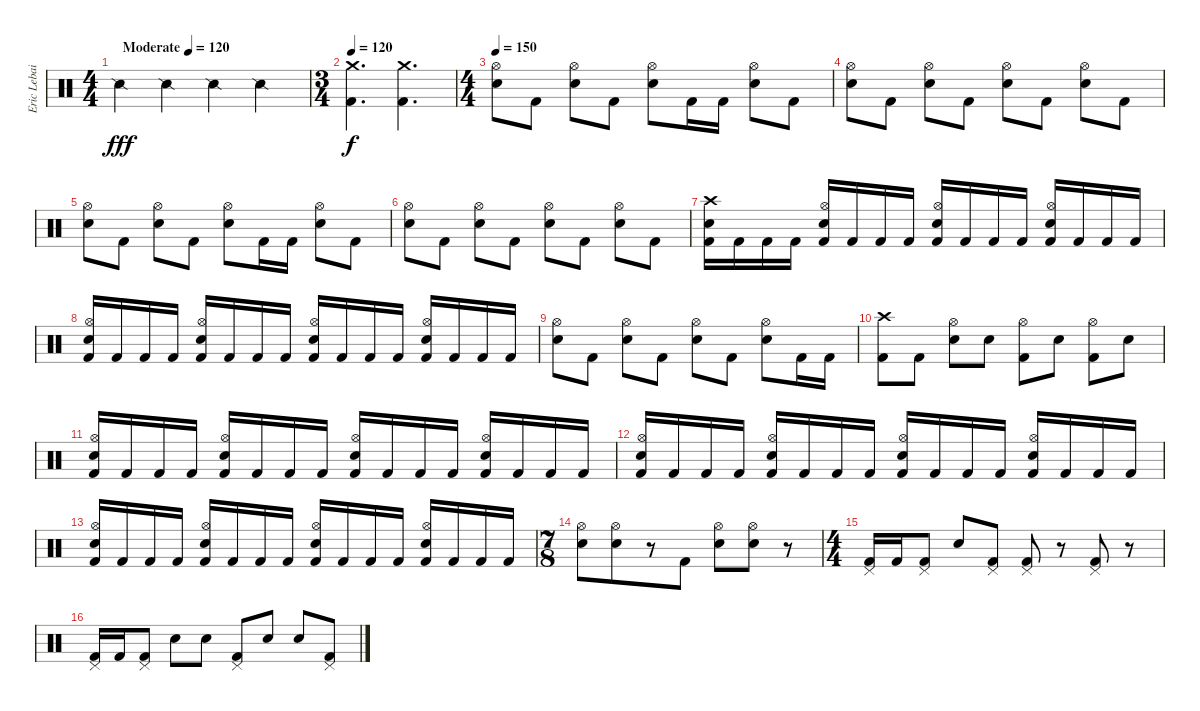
\track ("Eric Lebailly - Drums" "Eric Lebai") {instrument percussion}
\staff {score}
\articulation defaults
\ts (4 4)
\tempo (120 "Moderate")
\tempo 150
\tempo (120 "Moderate")
\clef neutral
\ks c "Snare (side stick) 2".4{dy fff} "Snare (side stick) 2".4 "Snare (side stick) 2".4 "Snare (side stick) 2".4
|
\ts (3 4)
\tempo 120
("Crash medium (hit)" "Kick (hit) 2").4{d dy f} ("Crash medium (hit)" "Kick (hit) 2").4{d} |
\ts (4 4)
\tempo 150
("Hi-Hat (open)" "Electric Snare (hit)").8 "Kick (hit) 2".8 ("Hi-Hat (open)" "Electric Snare (hit)").8 "Kick (hit) 2".8 ("Hi-Hat (open)" "Electric Snare (hit)").8 "Kick (hit) 2".16 "Kick (hit) 2".16 ("Hi-Hat (open)" "Electric Snare (hit)").8 "Kick (hit) 2".8 |
("Hi-Hat (open)" "Electric Snare (hit)").8 "Kick (hit) 2".8 ("Hi-Hat (open)" "Electric Snare (hit)").8 "Kick (hit) 2".8 ("Hi-Hat (open)" "Electric Snare (hit)").8 "Kick (hit) 2".8 ("Hi-Hat (open)" "Electric Snare (hit)").8 "Kick (hit) 2".8 |
("Hi-Hat (open)" "Electric Snare (hit)").8 "Kick (hit) 2".8 ("Hi-Hat (open)" "Electric Snare (hit)").8 "Kick (hit) 2".8 ("Hi-Hat (open)" "Electric Snare (hit)").8 "Kick (hit) 2".16 "Kick (hit) 2".16 ("Hi-Hat (open)" "Electric Snare (hit)").8 "Kick (hit) 2".8 |
("Hi-Hat (open)" "Electric Snare (hit)").8 "Kick (hit) 2".8 ("Hi-Hat (open)" "Electric Snare (hit)").8 "Kick (hit) 2".8 ("Hi-Hat (open)" "Electric Snare (hit)").8 "Kick (hit) 2".8 ("Hi-Hat (open)" "Electric Snare (hit)").8 "Kick (hit) 2".8 |
("Crash high (hit)" "Electric Snare (hit)" "Kick (hit) 2").16 "Kick (hit) 2".16 "Kick (hit) 2".16 "Kick (hit) 2".16 ("Hi-Hat (open)" "Electric Snare (hit)" "Kick (hit) 2").16 "Kick (hit) 2".16 "Kick (hit) 2".16 "Kick (hit) 2".16 ("Hi-Hat (open)" "Electric Snare (hit)" "Kick (hit) 2").16 "Kick (hit) 2".16 "Kick (hit) 2".16 "Kick (hit) 2".16 ("Hi-Hat (open)" "Electric Snare (hit)" "Kick (hit) 2").16 "Kick (hit) 2".16 "Kick (hit) 2".16 "Kick (hit) 2".16 |
("Hi-Hat (open)" "Electric Snare (hit)" "Kick (hit) 2").16 "Kick (hit) 2".16 "Kick (hit) 2".16 "Kick (hit) 2".16 ("Hi-Hat (open)" "Electric Snare (hit)" "Kick (hit) 2").16 "Kick (hit) 2".16 "Kick (hit) 2".16 "Kick (hit) 2".16 ("Hi-Hat (open)" "Electric Snare (hit)" "Kick (hit) 2").16 "Kick (hit) 2".16 "Kick (hit) 2".16 "Kick (hit) 2".16 ("Hi-Hat (open)" "Electric Snare (hit)" "Kick (hit) 2").16 "Kick (hit) 2".16 "Kick (hit) 2".16 "Kick (hit) 2".16 |
("Hi-Hat (open)" "Electric Snare (hit)").8 "Kick (hit) 2".8 ("Hi-Hat (open)" "Electric Snare (hit)").8 "Kick (hit) 2".8 ("Hi-Hat (open)" "Electric Snare (hit)").8 "Kick (hit) 2".8 ("Hi-Hat (open)" "Electric Snare (hit)").8 "Kick (hit) 2".16 "Kick (hit) 2".16 |
("Crash high (hit)" "Kick (hit) 2").8 "Kick (hit) 2".8 ("Hi-Hat (open)" "Electric Snare (hit)").8 "Electric Snare (hit)".8 ("Hi-Hat (open)" "Kick (hit) 2").8 "Electric Snare (hit)".8 ("Hi-Hat (open)" "Kick (hit) 2").8 "Electric Snare (hit)".8 |
("Hi-Hat (open)" "Electric Snare (hit)" "Kick (hit) 2").16 "Kick (hit) 2".16 "Kick (hit) 2".16 "Kick (hit) 2".16 ("Hi-Hat (open)" "Electric Snare (hit)" "Kick (hit) 2").16 "Kick (hit) 2".16 "Kick (hit) 2".16 "Kick (hit) 2".16 ("Hi-Hat (open)" "Electric Snare (hit)" "Kick (hit) 2").16 "Kick (hit) 2".16 "Kick (hit) 2".16 "Kick (hit) 2".16 ("Hi-Hat (open)" "Electric Snare (hit)" "Kick (hit) 2").16 "Kick (hit) 2".16 "Kick (hit) 2".16 "Kick (hit) 2".16 |
("Hi-Hat (open)" "Electric Snare (hit)" "Kick (hit) 2").16 "Kick (hit) 2".16 "Kick (hit) 2".16 "Kick (hit) 2".16 ("Hi-Hat (open)" "Electric Snare (hit)" "Kick (hit) 2").16 "Kick (hit) 2".16 "Kick (hit) 2".16 "Kick (hit) 2".16 ("Hi-Hat (open)" "Electric Snare (hit)" "Kick (hit) 2").16 "Kick (hit) 2".16 "Kick (hit) 2".16 "Kick (hit) 2".16 ("Hi-Hat (open)" "Electric Snare (hit)" "Kick (hit) 2").16 "Kick (hit) 2".16 "Kick (hit) 2".16 "Kick (hit) 2".16 |
("Hi-Hat (open)" "Electric Snare (hit)" "Kick (hit) 2").16 "Kick (hit) 2".16 "Kick (hit) 2".16 "Kick (hit) 2".16 ("Hi-Hat (open)" "Electric Snare (hit)" "Kick (hit) 2").16 "Kick (hit) 2".16 "Kick (hit) 2".16 "Kick (hit) 2".16 ("Hi-Hat (open)" "Electric Snare (hit)" "Kick (hit) 2").16 "Kick (hit) 2".16 "Kick (hit) 2".16 "Kick (hit) 2".16 ("Hi-Hat (open)" "Electric Snare (hit)" "Kick (hit) 2").16 "Kick (hit) 2".16 "Kick (hit) 2".16 "Kick (hit) 2".16 |
\ts (7 8)
("Hi-Hat (open)" "Electric Snare (hit)").8 ("Hi-Hat (open)" "Electric Snare (hit)").8 r.8 "Kick (hit) 2".8 ("Hi-Hat (open)" "Electric Snare (hit)").8 ("Hi-Hat (open)" "Electric Snare (hit)").8 r.8 |
\ts (4 4)
("Pedal Hi-Hat (hit)" "Kick (hit) 2").16 "Kick (hit) 2".16 ("Pedal Hi-Hat (hit)" "Kick (hit) 2").8 "Electric Snare (hit)".8 ("Pedal Hi-Hat (hit)" "Kick (hit) 2").8 ("Pedal Hi-Hat (hit)" "Kick (hit) 2").8 r.8 ("Pedal Hi-Hat (hit)" "Kick (hit) 2").8 r.8 |
("Pedal Hi-Hat (hit)" "Kick (hit) 2").16 "Kick (hit) 2".16 ("Pedal Hi-Hat (hit)" "Kick (hit) 2").8 "Electric Snare (hit)".8 "Electric Snare (hit)".8 ("Pedal Hi-Hat (hit)" "Kick (hit) 2").8 "Electric Snare (hit)".8 "Electric Snare (hit)".8 ("Pedal Hi-Hat (hit)" "Kick (hit) 2").8
